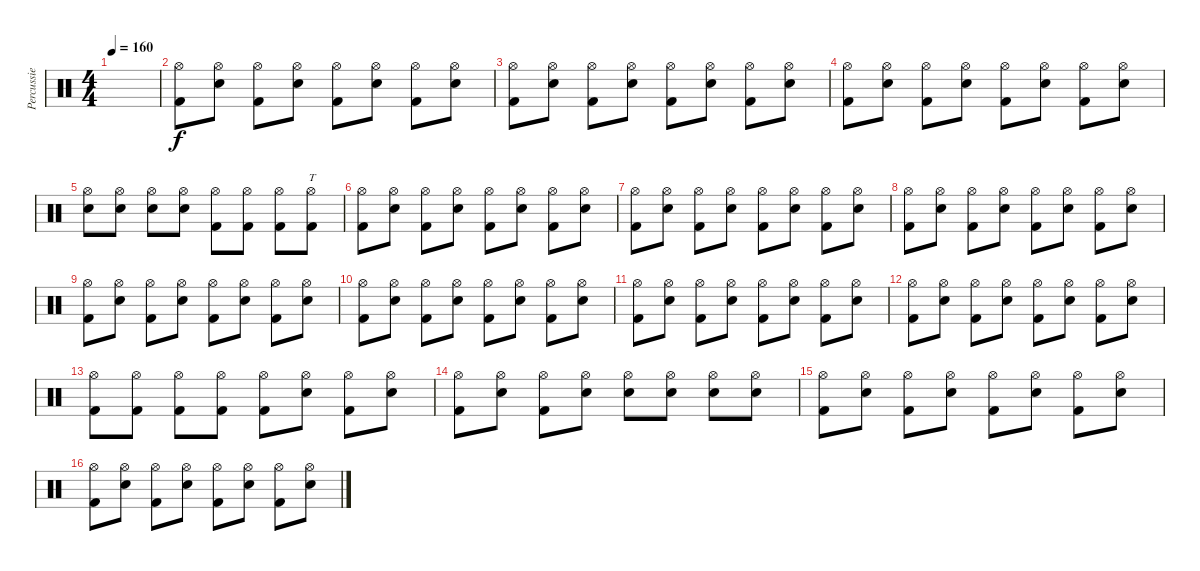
\track ("Percussie" "Percussie") {instrument percussion}
\staff {score}
\articulation defaults
\ts (4 4)
\tempo 160
\clef neutral
\ks c
|
("Kick (hit) 2" "Hi-Hat (open)").8 ("Snare (hit) 2" "Hi-Hat (open)").8 ("Kick (hit) 2" "Hi-Hat (open)").8 ("Snare (hit) 2" "Hi-Hat (open)").8 ("Kick (hit) 2" "Hi-Hat (open)").8 ("Snare (hit) 2" "Hi-Hat (open)").8 ("Kick (hit) 2" "Hi-Hat (open)").8 ("Snare (hit) 2" "Hi-Hat (open)").8 |
("Kick (hit) 2" "Hi-Hat (open)").8 ("Snare (hit) 2" "Hi-Hat (open)").8 ("Kick (hit) 2" "Hi-Hat (open)").8 ("Snare (hit) 2" "Hi-Hat (open)").8 ("Kick (hit) 2" "Hi-Hat (open)").8 ("Snare (hit) 2" "Hi-Hat (open)").8 ("Kick (hit) 2" "Hi-Hat (open)").8 ("Snare (hit) 2" "Hi-Hat (open)").8 |
("Kick (hit) 2" "Hi-Hat (open)").8 ("Snare (hit) 2" "Hi-Hat (open)").8 ("Kick (hit) 2" "Hi-Hat (open)").8 ("Snare (hit) 2" "Hi-Hat (open)").8 ("Kick (hit) 2" "Hi-Hat (open)").8 ("Snare (hit) 2" "Hi-Hat (open)").8 ("Kick (hit) 2" "Hi-Hat (open)").8 ("Snare (hit) 2" "Hi-Hat (open)").8 |
("Snare (hit) 2" "Hi-Hat (open)").8 ("Snare (hit) 2" "Hi-Hat (open)").8 ("Snare (hit) 2" "Hi-Hat (open)").8 ("Snare (hit) 2" "Hi-Hat (open)").8 ("Kick (hit) 2" "Hi-Hat (open)").8 ("Kick (hit) 2" "Hi-Hat (open)").8 ("Kick (hit) 2" "Hi-Hat (open)").8 ("Kick (hit) 2" "Hi-Hat (open)").8{tt} |
("Kick (hit) 2" "Hi-Hat (open)").8 ("Snare (hit) 2" "Hi-Hat (open)").8 ("Kick (hit) 2" "Hi-Hat (open)").8 ("Snare (hit) 2" "Hi-Hat (open)").8 ("Kick (hit) 2" "Hi-Hat (open)").8 ("Snare (hit) 2" "Hi-Hat (open)").8 ("Kick (hit) 2" "Hi-Hat (open)").8 ("Snare (hit) 2" "Hi-Hat (open)").8 |
("Kick (hit) 2" "Hi-Hat (open)").8 ("Snare (hit) 2" "Hi-Hat (open)").8 ("Kick (hit) 2" "Hi-Hat (open)").8 ("Snare (hit) 2" "Hi-Hat (open)").8 ("Kick (hit) 2" "Hi-Hat (open)").8 ("Snare (hit) 2" "Hi-Hat (open)").8 ("Kick (hit) 2" "Hi-Hat (open)").8 ("Snare (hit) 2" "Hi-Hat (open)").8 |
("Kick (hit) 2" "Hi-Hat (open)").8 ("Snare (hit) 2" "Hi-Hat (open)").8 ("Kick (hit) 2" "Hi-Hat (open)").8 ("Snare (hit) 2" "Hi-Hat (open)").8 ("Kick (hit) 2" "Hi-Hat (open)").8 ("Snare (hit) 2" "Hi-Hat (open)").8 ("Kick (hit) 2" "Hi-Hat (open)").8 ("Snare (hit) 2" "Hi-Hat (open)").8 |
("Kick (hit) 2" "Hi-Hat (open)").8 ("Snare (hit) 2" "Hi-Hat (open)").8 ("Kick (hit) 2" "Hi-Hat (open)").8 ("Snare (hit) 2" "Hi-Hat (open)").8 ("Kick (hit) 2" "Hi-Hat (open)").8 ("Snare (hit) 2" "Hi-Hat (open)").8 ("Kick (hit) 2" "Hi-Hat (open)").8 ("Snare (hit) 2" "Hi-Hat (open)").8 |
("Kick (hit) 2" "Hi-Hat (open)").8 ("Snare (hit) 2" "Hi-Hat (open)").8 ("Kick (hit) 2" "Hi-Hat (open)").8 ("Snare (hit) 2" "Hi-Hat (open)").8 ("Kick (hit) 2" "Hi-Hat (open)").8 ("Snare (hit) 2" "Hi-Hat (open)").8 ("Kick (hit) 2" "Hi-Hat (open)").8 ("Snare (hit) 2" "Hi-Hat (open)").8 |
("Kick (hit) 2" "Hi-Hat (open)").8 ("Snare (hit) 2" "Hi-Hat (open)").8 ("Kick (hit) 2" "Hi-Hat (open)").8 ("Snare (hit) 2" "Hi-Hat (open)").8 ("Kick (hit) 2" "Hi-Hat (open)").8 ("Snare (hit) 2" "Hi-Hat (open)").8 ("Kick (hit) 2" "Hi-Hat (open)").8 ("Snare (hit) 2" "Hi-Hat (open)").8 |
("Kick (hit) 2" "Hi-Hat (open)").8 ("Snare (hit) 2" "Hi-Hat (open)").8 ("Kick (hit) 2" "Hi-Hat (open)").8 ("Snare (hit) 2" "Hi-Hat (open)").8 ("Kick (hit) 2" "Hi-Hat (open)").8 ("Snare (hit) 2" "Hi-Hat (open)").8 ("Kick (hit) 2" "Hi-Hat (open)").8 ("Snare (hit) 2" "Hi-Hat (open)").8 |
("Kick (hit) 2" "Hi-Hat (open)").8 ("Kick (hit) 2" "Hi-Hat (open)").8 ("Kick (hit) 2" "Hi-Hat (open)").8 ("Kick (hit) 2" "Hi-Hat (open)").8 ("Kick (hit) 2" "Hi-Hat (open)").8 ("Snare (hit) 2" "Hi-Hat (open)").8 ("Kick (hit) 2" "Hi-Hat (open)").8 ("Snare (hit) 2" "Hi-Hat (open)").8 |
("Kick (hit) 2" "Hi-Hat (open)").8 ("Snare (hit) 2" "Hi-Hat (open)").8 ("Kick (hit) 2" "Hi-Hat (open)").8 ("Snare (hit) 2" "Hi-Hat (open)").8 ("Snare (hit) 2" "Hi-Hat (open)").8 ("Snare (hit) 2" "Hi-Hat (open)").8 ("Snare (hit) 2" "Hi-Hat (open)").8 ("Snare (hit) 2" "Hi-Hat (open)").8 |
("Kick (hit) 2" "Hi-Hat (open)").8 ("Snare (hit) 2" "Hi-Hat (open)").8 ("Kick (hit) 2" "Hi-Hat (open)").8 ("Snare (hit) 2" "Hi-Hat (open)").8 ("Kick (hit) 2" "Hi-Hat (open)").8 ("Snare (hit) 2" "Hi-Hat (open)").8 ("Kick (hit) 2" "Hi-Hat (open)").8 ("Snare (hit) 2" "Hi-Hat (open)").8 |
("Kick (hit) 2" "Hi-Hat (open)").8 ("Snare (hit) 2" "Hi-Hat (open)").8 ("Kick (hit) 2" "Hi-Hat (open)").8 ("Snare (hit) 2" "Hi-Hat (open)").8 ("Kick (hit) 2" "Hi-Hat (open)").8 ("Snare (hit) 2" "Hi-Hat (open)").8 ("Kick (hit) 2" "Hi-Hat (open)").8 ("Snare (hit) 2" "Hi-Hat (open)").8
